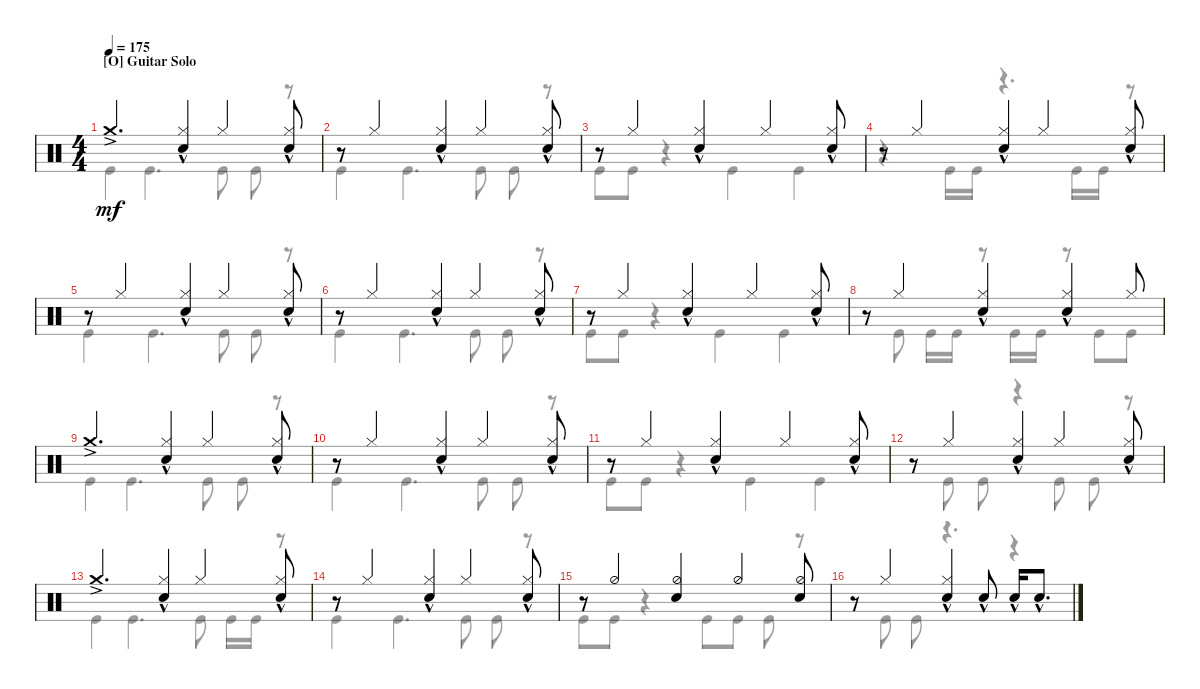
\defaultSystemsLayout 4
\bracketExtendMode groupsimilarinstruments
\singleTrackTrackNamePolicy hidden
\multiTrackTrackNamePolicy hidden
\firstSystemTrackNameOrientation horizontal
\otherSystemsTrackNameOrientation horizontal
\track ("Nicko McBrain" "Drums") {instrument percussion}
\staff {score}
\articulation defaults
\voice
\ts (4 4)
\section ("O" "Guitar Solo")
\tempo 175
\clef neutral
\scale
1.02648
\ks c "Crash medium (hit)"{ac}.4{d dy mf}
("Hi-Hat (closed)" "Snare (hit) 2"{hac}).4 "Hi-Hat (closed)".4 ("Hi-Hat (closed)" "Snare (hit) 2"{hac}).8 |
\scale
0.973518 r.8 "Hi-Hat (closed)".4 ("Snare (hit) 2"{hac} "Hi-Hat (closed)").4 "Hi-Hat (closed)".4 ("Snare (hit) 2"{hac} "Hi-Hat (closed)").8 |
\scale
1.02648 r.8 "Hi-Hat (closed)".4 ("Hi-Hat (closed)" "Snare (hit) 2"{hac}).4 "Hi-Hat (closed)".4 ("Hi-Hat (closed)" "Snare (hit) 2"{hac}).8 |
\scale
0.973518 r.8 "Hi-Hat (closed)".4 ("Hi-Hat (closed)" "Snare (hit) 2"{hac}).4 "Hi-Hat (closed)".4 ("Hi-Hat (closed)" "Snare (hit) 2"{hac}).8 |
\scale
1.02648 r.8 "Hi-Hat (closed)".4 ("Snare (hit) 2"{hac} "Hi-Hat (closed)").4 "Hi-Hat (closed)".4 ("Snare (hit) 2"{hac} "Hi-Hat (closed)").8 |
\scale
0.973518 r.8 "Hi-Hat (closed)".4 ("Snare (hit) 2"{hac} "Hi-Hat (closed)").4 "Hi-Hat (closed)".4 ("Snare (hit) 2"{hac} "Hi-Hat (closed)").8 |
\scale
1.02648 r.8 "Hi-Hat (closed)".4 ("Hi-Hat (closed)" "Snare (hit) 2"{hac}).4 "Hi-Hat (closed)".4 ("Hi-Hat (closed)" "Snare (hit) 2"{hac}).8 |
\scale
0.973518 r.8 "Hi-Hat (closed)".4 ("Hi-Hat (closed)" "Snare (hit) 2"{hac}).4 ("Hi-Hat (closed)" "Snare (hit) 2"{hac}).4 "Hi-Hat (closed)".8 |
\scale
1.02648 "Crash medium (hit)"{ac}.4{d} ("Hi-Hat (closed)" "Snare (hit) 2"{hac}).4 "Hi-Hat (closed)".4 ("Hi-Hat (closed)" "Snare (hit) 2"{hac}).8 |
\scale
0.973518 r.8 "Hi-Hat (closed)".4 ("Snare (hit) 2"{hac} "Hi-Hat (closed)").4 "Hi-Hat (closed)".4 ("Snare (hit) 2"{hac} "Hi-Hat (closed)").8 |
\scale
1.02648 r.8 "Hi-Hat (closed)".4 ("Hi-Hat (closed)" "Snare (hit) 2"{hac}).4 "Hi-Hat (closed)".4 ("Hi-Hat (closed)" "Snare (hit) 2"{hac}).8 |
\scale
0.973518 r.8 "Hi-Hat (closed)".4 ("Hi-Hat (closed)" "Snare (hit) 2"{hac}).4 "Hi-Hat (closed)".4 ("Hi-Hat (closed)" "Snare (hit) 2"{hac}).8 |
\scale
1.02648 "Crash medium (hit)"{ac}.4{d} ("Hi-Hat (closed)" "Snare (hit) 2"{hac}).4 "Hi-Hat (closed)".4 ("Hi-Hat (closed)" "Snare (hit) 2"{hac}).8 |
\scale
0.973518 r.8 "Hi-Hat (closed)".4 ("Snare (hit) 2"{hac} "Hi-Hat (closed)").4 "Hi-Hat (closed)".4 ("Snare (hit) 2"{hac} "Hi-Hat (closed)").8 |
\scale
1.02648 r.8 "Hi-Hat (half)".4 ("Hi-Hat (half)" "Snare (hit) 2").4 "Hi-Hat (half)".4 ("Hi-Hat (half)" "Snare (hit) 2").8 |
\scale
0.973518 r.8 "Hi-Hat (closed)".4 ("Hi-Hat (closed)" "Snare (hit) 2"{hac}).4 "Snare (hit) 2"{hac}.8 "Snare (hit) 2"{hac}.16 "Snare (hit) 2"{hac}.8{d}
\voice
\clef neutral
\ottava regular
\simile none
\scale
1.02648
\ks c "Kick (hit)".4{dy mf} "Kick (hit)".4{d} "Kick (hit)".8 "Kick (hit)".8
r.8 |
\scale
0.973518 "Kick (hit)".4 "Kick (hit)".4{d} "Kick (hit)".8 "Kick (hit)".8 r.8 |
\scale
1.02648 "Kick (hit)".8 "Kick (hit)".8 r.4 "Kick (hit)".4 "Kick (hit)".4 |
\scale
0.973518 r.4 "Kick (hit)".16 "Kick (hit)".16 r.4{d} "Kick (hit)".16 "Kick (hit)".16 r.8 |
\scale
1.02648 "Kick (hit)".4 "Kick (hit)".4{d} "Kick (hit)".8 "Kick (hit)".8 r.8 |
\scale
0.973518 "Kick (hit)".4 "Kick (hit)".4{d} "Kick (hit)".8 "Kick (hit)".8 r.8 |
\scale
1.02648 "Kick (hit)".8 "Kick (hit)".8 r.4 "Kick (hit)".4 "Kick (hit)".4 |
\scale
0.973518 r.8 "Kick (hit)".8 "Kick (hit)".16 "Kick (hit)".16 r.8 "Kick (hit)".16 "Kick (hit)".16 r.8 "Kick (hit)".8 "Kick (hit)".8 |
\scale
1.02648 "Kick (hit)".4 "Kick (hit)".4{d} "Kick (hit)".8 "Kick (hit)".8 r.8 |
\scale
0.973518 "Kick (hit)".4 "Kick (hit)".4{d} "Kick (hit)".8 "Kick (hit)".8 r.8 |
\scale
1.02648 "Kick (hit)".8 "Kick (hit)".8 r.4 "Kick (hit)".4 "Kick (hit)".4 |
\scale
0.973518 r.8 "Kick (hit)".8 "Kick (hit)".8 r.4 "Kick (hit)".8 "Kick (hit)".8 r.8 |
\scale
1.02648 "Kick (hit)".4 "Kick (hit)".4{d} "Kick (hit)".8 "Kick (hit)".16 "Kick (hit)".16 r.8 |
\scale
0.973518 "Kick (hit)".4 "Kick (hit)".4{d} "Kick (hit)".8 "Kick (hit)".8 r.8 |
\scale
1.02648 "Kick (hit)".8 "Kick (hit)".8 r.4 "Kick (hit)".8 "Kick (hit)".8 "Kick (hit)".8 r.8 |
\scale
0.973518 r.8 "Kick (hit)".8 "Kick (hit)".8 r.4{d} r.4
